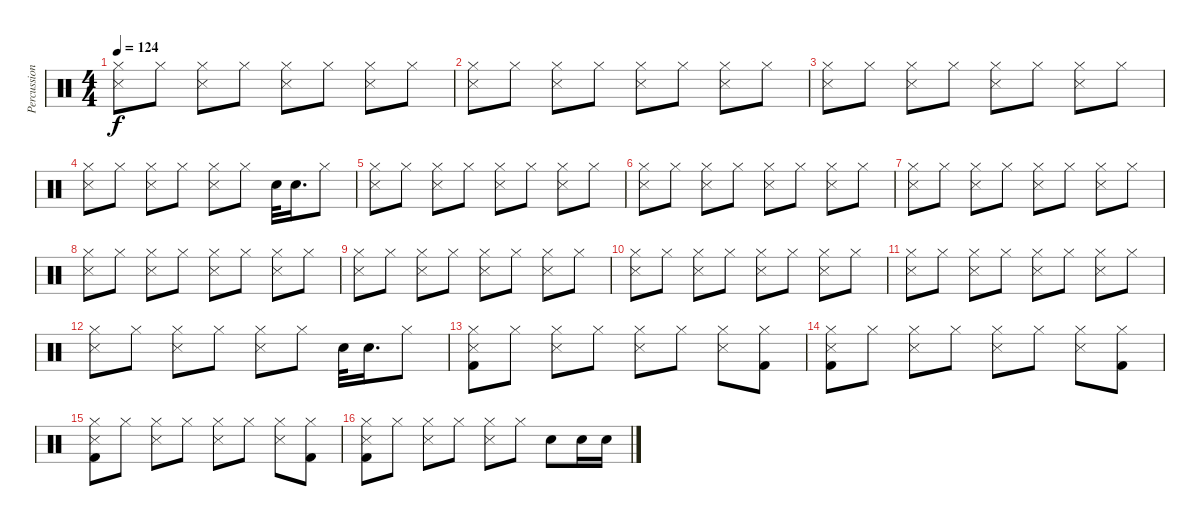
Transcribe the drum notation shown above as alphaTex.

\track ("Percussion" "Percussion") {instrument percussion}
\staff {score}
\articulation defaults
\ts (4 4)
\tempo 124
\clef neutral
\ks c
("Hi-Hat (closed)" "Snare (side stick) 3").8{dy f} "Hi-Hat (closed)".8 ("Hi-Hat (closed)" "Snare (side stick) 3").8 "Hi-Hat (closed)".8 ("Hi-Hat (closed)" "Snare (side stick) 3").8 "Hi-Hat (closed)".8 ("Hi-Hat (closed)" "Snare (side stick) 3").8 "Hi-Hat (closed)".8 |
("Hi-Hat (closed)" "Snare (side stick) 3").8 "Hi-Hat (closed)".8 ("Hi-Hat (closed)" "Snare (side stick) 3").8 "Hi-Hat (closed)".8 ("Hi-Hat (closed)" "Snare (side stick) 3").8 "Hi-Hat (closed)".8 ("Hi-Hat (closed)" "Snare (side stick) 3").8 "Hi-Hat (closed)".8 |
("Hi-Hat (closed)" "Snare (side stick) 3").8 "Hi-Hat (closed)".8 ("Hi-Hat (closed)" "Snare (side stick) 3").8 "Hi-Hat (closed)".8 ("Hi-Hat (closed)" "Snare (side stick) 3").8 "Hi-Hat (closed)".8 ("Hi-Hat (closed)" "Snare (side stick) 3").8 "Hi-Hat (closed)".8 |
("Hi-Hat (closed)" "Snare (side stick) 3").8 "Hi-Hat (closed)".8 ("Hi-Hat (closed)" "Snare (side stick) 3").8 "Hi-Hat (closed)".8 ("Hi-Hat (closed)" "Snare (side stick) 3").8 "Hi-Hat (closed)".8 "Snare (hit) 2".32 "Snare (hit) 2".16{d} "Hi-Hat (closed)".8 |
("Hi-Hat (closed)" "Snare (side stick) 3").8 "Hi-Hat (closed)".8 ("Hi-Hat (closed)" "Snare (side stick) 3").8 "Hi-Hat (closed)".8 ("Hi-Hat (closed)" "Snare (side stick) 3").8 "Hi-Hat (closed)".8 ("Hi-Hat (closed)" "Snare (side stick) 3").8 "Hi-Hat (closed)".8 |
("Hi-Hat (closed)" "Snare (side stick) 3").8 "Hi-Hat (closed)".8 ("Hi-Hat (closed)" "Snare (side stick) 3").8 "Hi-Hat (closed)".8 ("Hi-Hat (closed)" "Snare (side stick) 3").8 "Hi-Hat (closed)".8 ("Hi-Hat (closed)" "Snare (side stick) 3").8 "Hi-Hat (closed)".8 |
("Hi-Hat (closed)" "Snare (side stick) 3").8 "Hi-Hat (closed)".8 ("Hi-Hat (closed)" "Snare (side stick) 3").8 "Hi-Hat (closed)".8 ("Hi-Hat (closed)" "Snare (side stick) 3").8 "Hi-Hat (closed)".8 ("Hi-Hat (closed)" "Snare (side stick) 3").8 "Hi-Hat (closed)".8 |
("Hi-Hat (closed)" "Snare (side stick) 3").8 "Hi-Hat (closed)".8 ("Hi-Hat (closed)" "Snare (side stick) 3").8 "Hi-Hat (closed)".8 ("Hi-Hat (closed)" "Snare (side stick) 3").8 "Hi-Hat (closed)".8 ("Hi-Hat (closed)" "Snare (side stick) 3").8 "Hi-Hat (closed)".8 |
("Hi-Hat (closed)" "Snare (side stick) 3").8 "Hi-Hat (closed)".8 ("Hi-Hat (closed)" "Snare (side stick) 3").8 "Hi-Hat (closed)".8 ("Hi-Hat (closed)" "Snare (side stick) 3").8 "Hi-Hat (closed)".8 ("Hi-Hat (closed)" "Snare (side stick) 3").8 "Hi-Hat (closed)".8 |
("Hi-Hat (closed)" "Snare (side stick) 3").8 "Hi-Hat (closed)".8 ("Hi-Hat (closed)" "Snare (side stick) 3").8 "Hi-Hat (closed)".8 ("Hi-Hat (closed)" "Snare (side stick) 3").8 "Hi-Hat (closed)".8 ("Hi-Hat (closed)" "Snare (side stick) 3").8 "Hi-Hat (closed)".8 |
("Hi-Hat (closed)" "Snare (side stick) 3").8 "Hi-Hat (closed)".8 ("Hi-Hat (closed)" "Snare (side stick) 3").8 "Hi-Hat (closed)".8 ("Hi-Hat (closed)" "Snare (side stick) 3").8 "Hi-Hat (closed)".8 ("Hi-Hat (closed)" "Snare (side stick) 3").8 "Hi-Hat (closed)".8 |
("Hi-Hat (closed)" "Snare (side stick) 3").8 "Hi-Hat (closed)".8 ("Hi-Hat (closed)" "Snare (side stick) 3").8 "Hi-Hat (closed)".8 ("Hi-Hat (closed)" "Snare (side stick) 3").8 "Hi-Hat (closed)".8 "Snare (hit) 2".32 "Snare (hit) 2".16{d} "Hi-Hat (closed)".8 |
("Hi-Hat (closed)" "Snare (side stick) 3" "Kick (hit) 2").8 "Hi-Hat (closed)".8 ("Hi-Hat (closed)" "Snare (side stick) 3").8 "Hi-Hat (closed)".8 ("Hi-Hat (closed)" "Snare (side stick) 3").8 "Hi-Hat (closed)".8 ("Hi-Hat (closed)" "Snare (side stick) 3").8 ("Hi-Hat (closed)" "Kick (hit) 2").8 |
("Hi-Hat (closed)" "Snare (side stick) 3" "Kick (hit) 2").8 "Hi-Hat (closed)".8 ("Hi-Hat (closed)" "Snare (side stick) 3").8 "Hi-Hat (closed)".8 ("Hi-Hat (closed)" "Snare (side stick) 3").8 "Hi-Hat (closed)".8 ("Hi-Hat (closed)" "Snare (side stick) 3").8 ("Hi-Hat (closed)" "Kick (hit) 2").8 |
("Hi-Hat (closed)" "Snare (side stick) 3" "Kick (hit) 2").8 "Hi-Hat (closed)".8 ("Hi-Hat (closed)" "Snare (side stick) 3").8 "Hi-Hat (closed)".8 ("Hi-Hat (closed)" "Snare (side stick) 3").8 "Hi-Hat (closed)".8 ("Hi-Hat (closed)" "Snare (side stick) 3").8 ("Hi-Hat (closed)" "Kick (hit) 2").8 |
("Hi-Hat (closed)" "Snare (side stick) 3" "Kick (hit) 2").8 "Hi-Hat (closed)".8 ("Hi-Hat (closed)" "Snare (side stick) 3").8 "Hi-Hat (closed)".8 ("Hi-Hat (closed)" "Snare (side stick) 3").8 "Hi-Hat (closed)".8 "Snare (hit) 2".8 "Snare (hit) 2".16 "Snare (hit) 2".16
